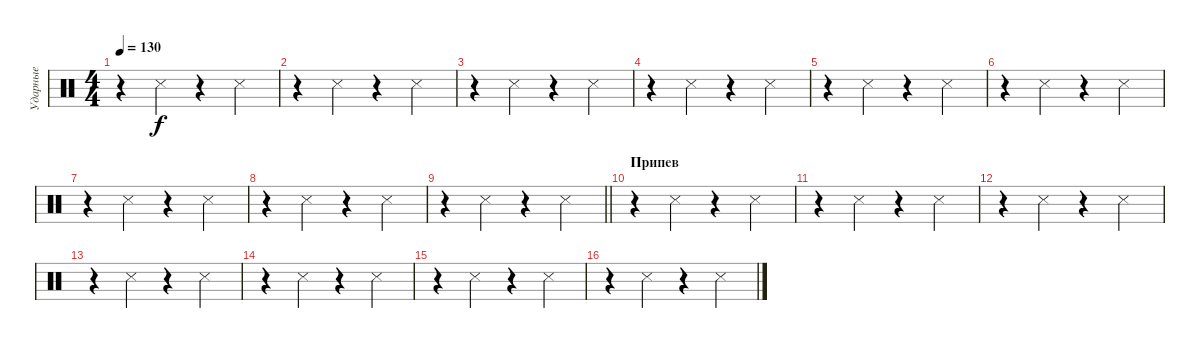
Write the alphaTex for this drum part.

\track ("Ударные" "Ударные") {instrument percussion}
\staff {score}
\articulation defaults
\ts (4 4)
\tempo 130
\clef neutral
\ks c
r.4{dy f} "Snare (side stick) 3".4 r.4 "Snare (side stick) 3".4 |
r.4 "Snare (side stick) 3".4 r.4 "Snare (side stick) 3".4 |
r.4 "Snare (side stick) 3".4 r.4 "Snare (side stick) 3".4 |
r.4 "Snare (side stick) 3".4 r.4 "Snare (side stick) 3".4 |
r.4 "Snare (side stick) 3".4 r.4 "Snare (side stick) 3".4 |
r.4 "Snare (side stick) 3".4 r.4 "Snare (side stick) 3".4 |
r.4 "Snare (side stick) 3".4 r.4 "Snare (side stick) 3".4 |
r.4 "Snare (side stick) 3".4 r.4 "Snare (side stick) 3".4 |
\barLineRight lightlight
r.4 "Snare (side stick) 3".4 r.4 "Snare (side stick) 3".4 |
\section ("" "Припев")
r.4 "Snare (side stick) 3".4 r.4 "Snare (side stick) 3".4 |
r.4 "Snare (side stick) 3".4 r.4 "Snare (side stick) 3".4 |
r.4 "Snare (side stick) 3".4 r.4 "Snare (side stick) 3".4 |
r.4 "Snare (side stick) 3".4 r.4 "Snare (side stick) 3".4 |
r.4 "Snare (side stick) 3".4 r.4 "Snare (side stick) 3".4 |
r.4 "Snare (side stick) 3".4 r.4 "Snare (side stick) 3".4 |
r.4 "Snare (side stick) 3".4 r.4 "Snare (side stick) 3".4
